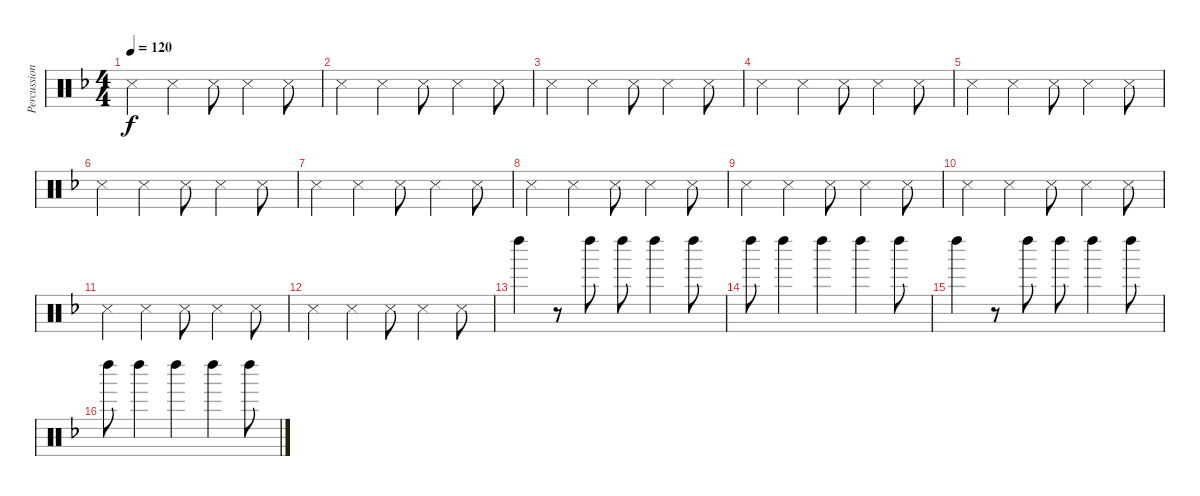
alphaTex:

\track ("Percussion" "Percussion") {instrument percussion}
\staff {score}
\articulation defaults
\ts (4 4)
\tempo 120
\clef neutral
\ks f "Snare (side stick) 3".4{dy f} "Snare (side stick) 3".4 "Snare (side stick) 3".8 "Snare (side stick) 3".4 "Snare (side stick) 3".8
|
"Snare (side stick) 3".4 "Snare (side stick) 3".4 "Snare (side stick) 3".8 "Snare (side stick) 3".4 "Snare (side stick) 3".8 |
"Snare (side stick) 3".4 "Snare (side stick) 3".4 "Snare (side stick) 3".8 "Snare (side stick) 3".4 "Snare (side stick) 3".8 |
"Snare (side stick) 3".4 "Snare (side stick) 3".4 "Snare (side stick) 3".8 "Snare (side stick) 3".4 "Snare (side stick) 3".8 |
"Snare (side stick) 3".4 "Snare (side stick) 3".4 "Snare (side stick) 3".8 "Snare (side stick) 3".4 "Snare (side stick) 3".8 |
"Snare (side stick) 3".4 "Snare (side stick) 3".4 "Snare (side stick) 3".8 "Snare (side stick) 3".4 "Snare (side stick) 3".8 |
"Snare (side stick) 3".4 "Snare (side stick) 3".4 "Snare (side stick) 3".8 "Snare (side stick) 3".4 "Snare (side stick) 3".8 |
"Snare (side stick) 3".4 "Snare (side stick) 3".4 "Snare (side stick) 3".8 "Snare (side stick) 3".4 "Snare (side stick) 3".8 |
"Snare (side stick) 3".4 "Snare (side stick) 3".4 "Snare (side stick) 3".8 "Snare (side stick) 3".4 "Snare (side stick) 3".8 |
"Snare (side stick) 3".4 "Snare (side stick) 3".4 "Snare (side stick) 3".8 "Snare (side stick) 3".4 "Snare (side stick) 3".8 |
"Snare (side stick) 3".4 "Snare (side stick) 3".4 "Snare (side stick) 3".8 "Snare (side stick) 3".4 "Snare (side stick) 3".8 |
"Snare (side stick) 3".4 "Snare (side stick) 3".4 "Snare (side stick) 3".8 "Snare (side stick) 3".4 "Snare (side stick) 3".8 |
"Left Maraca (hit)".4 r.8 "Left Maraca (hit)".8 "Left Maraca (hit)".8 "Left Maraca (hit)".4 "Left Maraca (hit)".8 |
"Left Maraca (hit)".8 "Left Maraca (hit)".4 "Left Maraca (hit)".4 "Left Maraca (hit)".4 "Left Maraca (hit)".8 |
"Left Maraca (hit)".4 r.8 "Left Maraca (hit)".8 "Left Maraca (hit)".8 "Left Maraca (hit)".4 "Left Maraca (hit)".8 |
"Left Maraca (hit)".8 "Left Maraca (hit)".4 "Left Maraca (hit)".4 "Left Maraca (hit)".4 "Left Maraca (hit)".8
